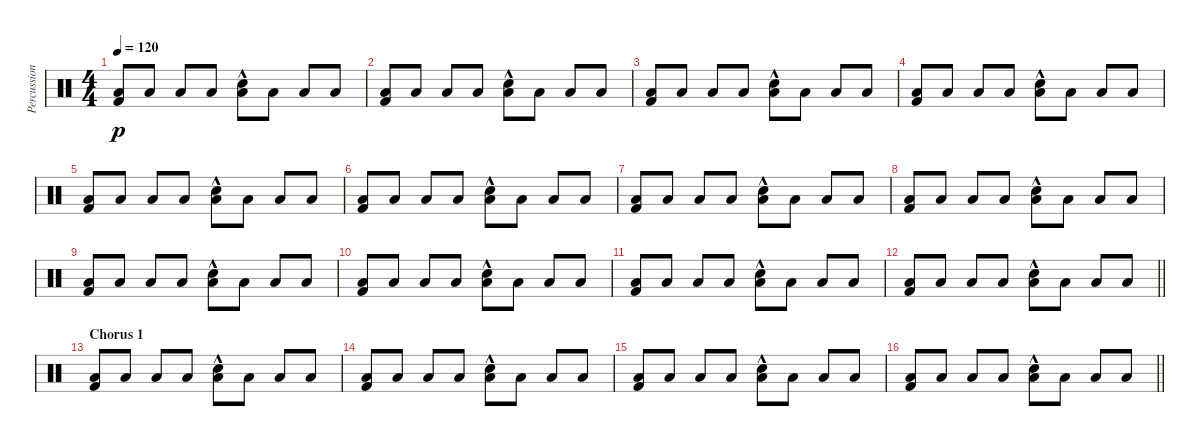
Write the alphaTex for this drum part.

\track ("Percussion" "Percussion") {instrument percussion}
\staff {score}
\articulation defaults
\ts (4 4)
\tempo 120
\clef neutral
\ks c
("Kick (hit) 2" "Low Floor Tom (hit)").8{dy p} "Low Floor Tom (hit)".8 "Low Floor Tom (hit)".8 "Low Floor Tom (hit)".8 ("Snare (hit) 2"{hac} "Low Floor Tom (hit)").8 "Low Floor Tom (hit)".8 "Low Floor Tom (hit)".8 "Low Floor Tom (hit)".8 |
("Kick (hit) 2" "Low Floor Tom (hit)").8 "Low Floor Tom (hit)".8 "Low Floor Tom (hit)".8 "Low Floor Tom (hit)".8 ("Snare (hit) 2"{hac} "Low Floor Tom (hit)").8 "Low Floor Tom (hit)".8 "Low Floor Tom (hit)".8 "Low Floor Tom (hit)".8 |
("Kick (hit) 2" "Low Floor Tom (hit)").8 "Low Floor Tom (hit)".8 "Low Floor Tom (hit)".8 "Low Floor Tom (hit)".8 ("Snare (hit) 2"{hac} "Low Floor Tom (hit)").8 "Low Floor Tom (hit)".8 "Low Floor Tom (hit)".8 "Low Floor Tom (hit)".8 |
("Kick (hit) 2" "Low Floor Tom (hit)").8 "Low Floor Tom (hit)".8 "Low Floor Tom (hit)".8 "Low Floor Tom (hit)".8 ("Snare (hit) 2"{hac} "Low Floor Tom (hit)").8 "Low Floor Tom (hit)".8 "Low Floor Tom (hit)".8 "Low Floor Tom (hit)".8 |
("Kick (hit) 2" "Low Floor Tom (hit)").8 "Low Floor Tom (hit)".8 "Low Floor Tom (hit)".8 "Low Floor Tom (hit)".8 ("Snare (hit) 2"{hac} "Low Floor Tom (hit)").8 "Low Floor Tom (hit)".8 "Low Floor Tom (hit)".8 "Low Floor Tom (hit)".8 |
("Kick (hit) 2" "Low Floor Tom (hit)").8 "Low Floor Tom (hit)".8 "Low Floor Tom (hit)".8 "Low Floor Tom (hit)".8 ("Snare (hit) 2"{hac} "Low Floor Tom (hit)").8 "Low Floor Tom (hit)".8 "Low Floor Tom (hit)".8 "Low Floor Tom (hit)".8 |
("Kick (hit) 2" "Low Floor Tom (hit)").8 "Low Floor Tom (hit)".8 "Low Floor Tom (hit)".8 "Low Floor Tom (hit)".8 ("Snare (hit) 2"{hac} "Low Floor Tom (hit)").8 "Low Floor Tom (hit)".8 "Low Floor Tom (hit)".8 "Low Floor Tom (hit)".8 |
("Kick (hit) 2" "Low Floor Tom (hit)").8 "Low Floor Tom (hit)".8 "Low Floor Tom (hit)".8 "Low Floor Tom (hit)".8 ("Snare (hit) 2"{hac} "Low Floor Tom (hit)").8 "Low Floor Tom (hit)".8 "Low Floor Tom (hit)".8 "Low Floor Tom (hit)".8 |
("Kick (hit) 2" "Low Floor Tom (hit)").8 "Low Floor Tom (hit)".8 "Low Floor Tom (hit)".8 "Low Floor Tom (hit)".8 ("Snare (hit) 2"{hac} "Low Floor Tom (hit)").8 "Low Floor Tom (hit)".8 "Low Floor Tom (hit)".8 "Low Floor Tom (hit)".8 |
("Kick (hit) 2" "Low Floor Tom (hit)").8 "Low Floor Tom (hit)".8 "Low Floor Tom (hit)".8 "Low Floor Tom (hit)".8 ("Snare (hit) 2"{hac} "Low Floor Tom (hit)").8 "Low Floor Tom (hit)".8 "Low Floor Tom (hit)".8 "Low Floor Tom (hit)".8 |
("Kick (hit) 2" "Low Floor Tom (hit)").8 "Low Floor Tom (hit)".8 "Low Floor Tom (hit)".8 "Low Floor Tom (hit)".8 ("Snare (hit) 2"{hac} "Low Floor Tom (hit)").8 "Low Floor Tom (hit)".8 "Low Floor Tom (hit)".8 "Low Floor Tom (hit)".8 |
\barLineRight lightlight
("Kick (hit) 2" "Low Floor Tom (hit)").8 "Low Floor Tom (hit)".8 "Low Floor Tom (hit)".8 "Low Floor Tom (hit)".8 ("Snare (hit) 2"{hac} "Low Floor Tom (hit)").8 "Low Floor Tom (hit)".8 "Low Floor Tom (hit)".8 "Low Floor Tom (hit)".8 |
\section ("" "Chorus 1")
("Kick (hit) 2" "Low Floor Tom (hit)").8 "Low Floor Tom (hit)".8 "Low Floor Tom (hit)".8 "Low Floor Tom (hit)".8 ("Snare (hit) 2"{hac} "Low Floor Tom (hit)").8 "Low Floor Tom (hit)".8 "Low Floor Tom (hit)".8 "Low Floor Tom (hit)".8 |
("Kick (hit) 2" "Low Floor Tom (hit)").8 "Low Floor Tom (hit)".8 "Low Floor Tom (hit)".8 "Low Floor Tom (hit)".8 ("Snare (hit) 2"{hac} "Low Floor Tom (hit)").8 "Low Floor Tom (hit)".8 "Low Floor Tom (hit)".8 "Low Floor Tom (hit)".8 |
("Kick (hit) 2" "Low Floor Tom (hit)").8 "Low Floor Tom (hit)".8 "Low Floor Tom (hit)".8 "Low Floor Tom (hit)".8 ("Snare (hit) 2"{hac} "Low Floor Tom (hit)").8 "Low Floor Tom (hit)".8 "Low Floor Tom (hit)".8 "Low Floor Tom (hit)".8 |
\barLineRight lightlight
("Kick (hit) 2" "Low Floor Tom (hit)").8 "Low Floor Tom (hit)".8 "Low Floor Tom (hit)".8 "Low Floor Tom (hit)".8 ("Snare (hit) 2"{hac} "Low Floor Tom (hit)").8 "Low Floor Tom (hit)".8 "Low Floor Tom (hit)".8 "Low Floor Tom (hit)".8
